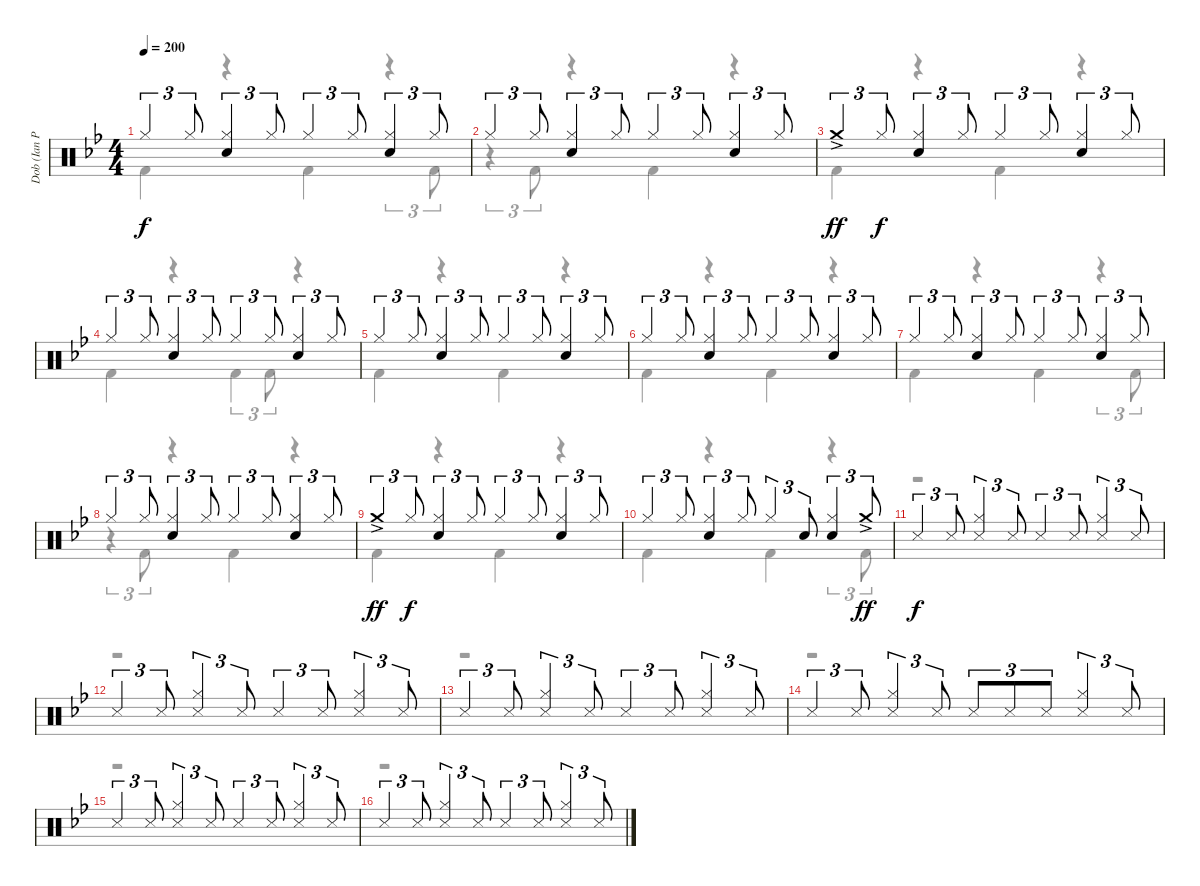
\track ("Dob (Ian Paice)" "Dob (Ian P") {instrument percussion}
\staff {score}
\articulation defaults
\voice
\ts (4 4)
\tempo 200
\clef neutral
\ks bb "Hi-Hat (closed)".4{tu (3 2) dy f} "Hi-Hat (closed)".8{tu (3 2)}
("Hi-Hat (closed)" "Electric Snare (hit)").4{tu (3 2)} "Hi-Hat (closed)".8{tu (3 2)} "Hi-Hat (closed)".4{tu (3 2)} "Hi-Hat (closed)".8{tu (3 2)} ("Hi-Hat (closed)" "Electric Snare (hit)").4{tu (3 2)} "Hi-Hat (closed)".8{tu (3 2)} |
"Hi-Hat (closed)".4{tu (3 2)} "Hi-Hat (closed)".8{tu (3 2)} ("Hi-Hat (closed)" "Electric Snare (hit)").4{tu (3 2)} "Hi-Hat (closed)".8{tu (3 2)} "Hi-Hat (closed)".4{tu (3 2)} "Hi-Hat (closed)".8{tu (3 2)} ("Hi-Hat (closed)" "Electric Snare (hit)").4{tu (3 2)} "Hi-Hat (closed)".8{tu (3 2)} |
"Crash medium (hit)"{ac}.4{tu (3 2) dy ff} "Hi-Hat (closed)".8{tu (3 2) dy f} ("Hi-Hat (closed)" "Electric Snare (hit)").4{tu (3 2)} "Hi-Hat (closed)".8{tu (3 2)} "Hi-Hat (closed)".4{tu (3 2)} "Hi-Hat (closed)".8{tu (3 2)} ("Hi-Hat (closed)" "Electric Snare (hit)").4{tu (3 2)} "Hi-Hat (closed)".8{tu (3 2)} |
"Hi-Hat (closed)".4{tu (3 2)} "Hi-Hat (closed)".8{tu (3 2)} ("Hi-Hat (closed)" "Electric Snare (hit)").4{tu (3 2)} "Hi-Hat (closed)".8{tu (3 2)} "Hi-Hat (closed)".4{tu (3 2)} "Hi-Hat (closed)".8{tu (3 2)} ("Hi-Hat (closed)" "Electric Snare (hit)").4{tu (3 2)} "Hi-Hat (closed)".8{tu (3 2)} |
"Hi-Hat (closed)".4{tu (3 2)} "Hi-Hat (closed)".8{tu (3 2)} ("Hi-Hat (closed)" "Electric Snare (hit)").4{tu (3 2)} "Hi-Hat (closed)".8{tu (3 2)} "Hi-Hat (closed)".4{tu (3 2)} "Hi-Hat (closed)".8{tu (3 2)} ("Hi-Hat (closed)" "Electric Snare (hit)").4{tu (3 2)} "Hi-Hat (closed)".8{tu (3 2)} |
"Hi-Hat (closed)".4{tu (3 2)} "Hi-Hat (closed)".8{tu (3 2)} ("Hi-Hat (closed)" "Electric Snare (hit)").4{tu (3 2)} "Hi-Hat (closed)".8{tu (3 2)} "Hi-Hat (closed)".4{tu (3 2)} "Hi-Hat (closed)".8{tu (3 2)} ("Hi-Hat (closed)" "Electric Snare (hit)").4{tu (3 2)} "Hi-Hat (closed)".8{tu (3 2)} |
"Hi-Hat (closed)".4{tu (3 2)} "Hi-Hat (closed)".8{tu (3 2)} ("Hi-Hat (closed)" "Electric Snare (hit)").4{tu (3 2)} "Hi-Hat (closed)".8{tu (3 2)} "Hi-Hat (closed)".4{tu (3 2)} "Hi-Hat (closed)".8{tu (3 2)} ("Hi-Hat (closed)" "Electric Snare (hit)").4{tu (3 2)} "Hi-Hat (closed)".8{tu (3 2)} |
"Hi-Hat (closed)".4{tu (3 2)} "Hi-Hat (closed)".8{tu (3 2)} ("Hi-Hat (closed)" "Electric Snare (hit)").4{tu (3 2)} "Hi-Hat (closed)".8{tu (3 2)} "Hi-Hat (closed)".4{tu (3 2)} "Hi-Hat (closed)".8{tu (3 2)} ("Hi-Hat (closed)" "Electric Snare (hit)").4{tu (3 2)} "Hi-Hat (closed)".8{tu (3 2)} |
"Crash medium (hit)"{ac}.4{tu (3 2) dy ff} "Hi-Hat (closed)".8{tu (3 2) dy f} ("Hi-Hat (closed)" "Electric Snare (hit)").4{tu (3 2)} "Hi-Hat (closed)".8{tu (3 2)} "Hi-Hat (closed)".4{tu (3 2)} "Hi-Hat (closed)".8{tu (3 2)} ("Hi-Hat (closed)" "Electric Snare (hit)").4{tu (3 2)} "Hi-Hat (closed)".8{tu (3 2)} |
"Hi-Hat (closed)".4{tu (3 2)} "Hi-Hat (closed)".8{tu (3 2)} ("Hi-Hat (closed)" "Electric Snare (hit)").4{tu (3 2)} "Hi-Hat (closed)".8{tu (3 2)} "Hi-Hat (closed)".4{tu (3 2)} "Electric Snare (hit)".8{tu (3 2)} ("Hi-Hat (closed)" "Electric Snare (hit)").4{tu (3 2)} "Crash medium (hit)"{ac}.8{tu (3 2) dy ff} |
"Snare (side stick) 3".4{tu (3 2) dy f volume 9} "Snare (side stick) 3".8{tu (3 2)} ("Hi-Hat (closed)" "Snare (side stick) 3").4{tu (3 2)} "Snare (side stick) 3".8{tu (3 2)} "Snare (side stick) 3".4{tu (3 2)} "Snare (side stick) 3".8{tu (3 2)} ("Hi-Hat (closed)" "Snare (side stick) 3").4{tu (3 2)} "Snare (side stick) 3".8{tu (3 2)} |
"Snare (side stick) 3".4{tu (3 2)} "Snare (side stick) 3".8{tu (3 2)} ("Hi-Hat (closed)" "Snare (side stick) 3").4{tu (3 2)} "Snare (side stick) 3".8{tu (3 2)} "Snare (side stick) 3".4{tu (3 2)} "Snare (side stick) 3".8{tu (3 2)} ("Hi-Hat (closed)" "Snare (side stick) 3").4{tu (3 2)} "Snare (side stick) 3".8{tu (3 2)} |
"Snare (side stick) 3".4{tu (3 2)} "Snare (side stick) 3".8{tu (3 2)} ("Hi-Hat (closed)" "Snare (side stick) 3").4{tu (3 2)} "Snare (side stick) 3".8{tu (3 2)} "Snare (side stick) 3".4{tu (3 2)} "Snare (side stick) 3".8{tu (3 2)} ("Hi-Hat (closed)" "Snare (side stick) 3").4{tu (3 2)} "Snare (side stick) 3".8{tu (3 2)} |
"Snare (side stick) 3".4{tu (3 2)} "Snare (side stick) 3".8{tu (3 2)} ("Hi-Hat (closed)" "Snare (side stick) 3").4{tu (3 2)} "Snare (side stick) 3".8{tu (3 2)} "Snare (side stick) 3".8{tu (3 2)} "Snare (side stick) 3".8{tu (3 2)} "Snare (side stick) 3".8{tu (3 2)} ("Hi-Hat (closed)" "Snare (side stick) 3").4{tu (3 2)} "Snare (side stick) 3".8{tu (3 2)} |
"Snare (side stick) 3".4{tu (3 2)} "Snare (side stick) 3".8{tu (3 2)} ("Hi-Hat (closed)" "Snare (side stick) 3").4{tu (3 2)} "Snare (side stick) 3".8{tu (3 2)} "Snare (side stick) 3".4{tu (3 2)} "Snare (side stick) 3".8{tu (3 2)} ("Hi-Hat (closed)" "Snare (side stick) 3").4{tu (3 2)} "Snare (side stick) 3".8{tu (3 2)} |
"Snare (side stick) 3".4{tu (3 2)} "Snare (side stick) 3".8{tu (3 2)} ("Hi-Hat (closed)" "Snare (side stick) 3").4{tu (3 2)} "Snare (side stick) 3".8{tu (3 2)} "Snare (side stick) 3".4{tu (3 2)} "Snare (side stick) 3".8{tu (3 2)} ("Hi-Hat (closed)" "Snare (side stick) 3").4{tu (3 2)} "Snare (side stick) 3".8{tu (3 2)}
\voice
\clef neutral
\ottava regular
\simile none
\ks bb "Kick (hit) 2".4{dy f}
r.4 "Kick (hit) 2".4 r.4{tu (3 2)} "Kick (hit) 2".8{tu (3 2)} |
r.4{tu (3 2)} "Kick (hit) 2".8{tu (3 2)} r.4 "Kick (hit) 2".4 r.4 |
"Kick (hit) 2".4 r.4 "Kick (hit) 2".4 r.4 |
"Kick (hit) 2".4 r.4 "Kick (hit) 2".4{tu (3 2)} "Kick (hit) 2".8{tu (3 2)} r.4 |
"Kick (hit) 2".4 r.4 "Kick (hit) 2".4 r.4 |
"Kick (hit) 2".4 r.4 "Kick (hit) 2".4 r.4 |
"Kick (hit) 2".4 r.4 "Kick (hit) 2".4 r.4{tu (3 2)} "Kick (hit) 2".8{tu (3 2)} |
r.4{tu (3 2)} "Kick (hit) 2".8{tu (3 2)} r.4 "Kick (hit) 2".4 r.4 |
"Kick (hit) 2".4 r.4 "Kick (hit) 2".4 r.4 |
"Kick (hit) 2".4 r.4 "Kick (hit) 2".4 r.4{tu (3 2)} "Kick (hit) 2".8{tu (3 2)} |
r.1 |
r.1 |
r.1 |
r.1 |
r.1 |
r.1
